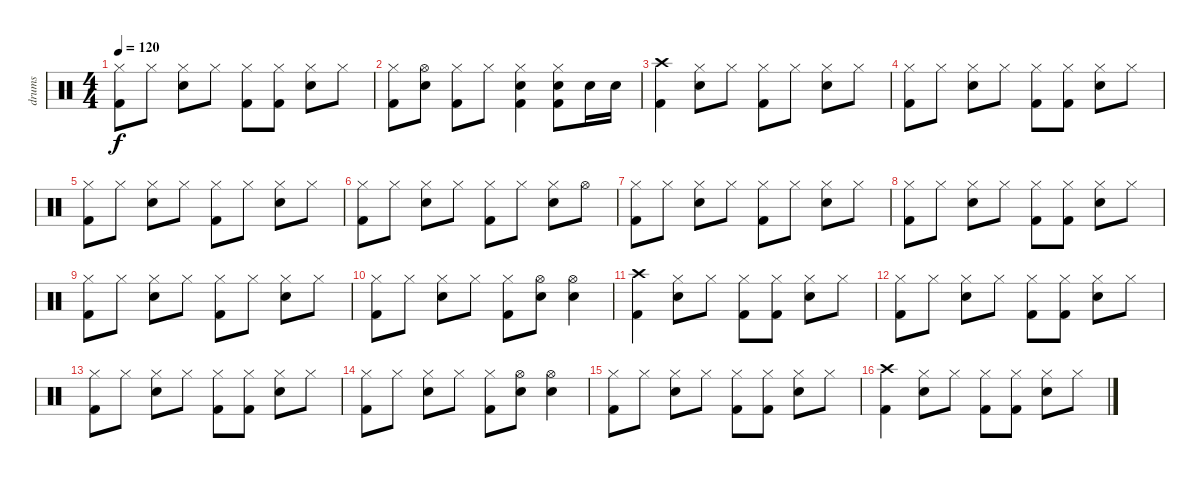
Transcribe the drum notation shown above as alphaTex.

\track ("drums" "drums") {instrument percussion}
\staff {score}
\articulation defaults
\ts (4 4)
\tempo 120
\clef neutral
\ks c
("Hi-Hat (closed)" "Kick (hit) 2").8{dy f} "Hi-Hat (closed)".8 ("Hi-Hat (closed)" "Electric Snare (hit)").8 "Hi-Hat (closed)".8 ("Hi-Hat (closed)" "Kick (hit) 2").8 ("Hi-Hat (closed)" "Kick (hit) 2").8 ("Hi-Hat (closed)" "Electric Snare (hit)").8 "Hi-Hat (closed)".8 |
("Hi-Hat (closed)" "Kick (hit) 2").8 ("Hi-Hat (open)" "Electric Snare (hit)").8 ("Hi-Hat (closed)" "Kick (hit) 2").8 "Hi-Hat (closed)".8 ("Hi-Hat (closed)" "Electric Snare (hit)" "Kick (hit) 2").4 ("Hi-Hat (closed)" "Electric Snare (hit)" "Kick (hit) 2").8 "Electric Snare (hit)".16 "Electric Snare (hit)".16 |
("Crash high (hit)" "Kick (hit) 2").4 ("Hi-Hat (closed)" "Electric Snare (hit)").8 "Hi-Hat (closed)".8 ("Hi-Hat (closed)" "Kick (hit) 2").8 "Hi-Hat (closed)".8 ("Hi-Hat (closed)" "Electric Snare (hit)").8 "Hi-Hat (closed)".8 |
("Hi-Hat (closed)" "Kick (hit) 2").8 "Hi-Hat (closed)".8 ("Hi-Hat (closed)" "Electric Snare (hit)").8 "Hi-Hat (closed)".8 ("Hi-Hat (closed)" "Kick (hit) 2").8 ("Hi-Hat (closed)" "Kick (hit) 2").8 ("Hi-Hat (closed)" "Electric Snare (hit)").8 "Hi-Hat (closed)".8 |
("Hi-Hat (closed)" "Kick (hit) 2").8 "Hi-Hat (closed)".8 ("Hi-Hat (closed)" "Electric Snare (hit)").8 "Hi-Hat (closed)".8 ("Hi-Hat (closed)" "Kick (hit) 2").8 "Hi-Hat (closed)".8 ("Hi-Hat (closed)" "Electric Snare (hit)").8 "Hi-Hat (closed)".8 |
("Hi-Hat (closed)" "Kick (hit) 2").8 "Hi-Hat (closed)".8 ("Hi-Hat (closed)" "Electric Snare (hit)").8 "Hi-Hat (closed)".8 ("Hi-Hat (closed)" "Kick (hit) 2").8 "Hi-Hat (closed)".8 ("Hi-Hat (closed)" "Electric Snare (hit)").8 "Hi-Hat (open)".8 |
("Hi-Hat (closed)" "Kick (hit) 2").8 "Hi-Hat (closed)".8 ("Hi-Hat (closed)" "Electric Snare (hit)").8 "Hi-Hat (closed)".8 ("Hi-Hat (closed)" "Kick (hit) 2").8 "Hi-Hat (closed)".8 ("Hi-Hat (closed)" "Electric Snare (hit)").8 "Hi-Hat (closed)".8 |
("Hi-Hat (closed)" "Kick (hit) 2").8 "Hi-Hat (closed)".8 ("Hi-Hat (closed)" "Electric Snare (hit)").8 "Hi-Hat (closed)".8 ("Hi-Hat (closed)" "Kick (hit) 2").8 ("Hi-Hat (closed)" "Kick (hit) 2").8 ("Hi-Hat (closed)" "Electric Snare (hit)").8 "Hi-Hat (closed)".8 |
("Hi-Hat (closed)" "Kick (hit) 2").8 "Hi-Hat (closed)".8 ("Hi-Hat (closed)" "Electric Snare (hit)").8 "Hi-Hat (closed)".8 ("Hi-Hat (closed)" "Kick (hit) 2").8 "Hi-Hat (closed)".8 ("Hi-Hat (closed)" "Electric Snare (hit)").8 "Hi-Hat (closed)".8 |
("Hi-Hat (closed)" "Kick (hit) 2").8 "Hi-Hat (closed)".8 ("Hi-Hat (closed)" "Electric Snare (hit)").8 "Hi-Hat (closed)".8 ("Hi-Hat (closed)" "Kick (hit) 2").8 ("Hi-Hat (open)" "Electric Snare (hit)").8 ("Hi-Hat (open)" "Electric Snare (hit)").4 |
("Crash high (hit)" "Kick (hit) 2").4 ("Hi-Hat (closed)" "Electric Snare (hit)").8 "Hi-Hat (closed)".8 ("Hi-Hat (closed)" "Kick (hit) 2").8 ("Hi-Hat (closed)" "Kick (hit) 2").8 ("Hi-Hat (closed)" "Electric Snare (hit)").8 "Hi-Hat (closed)".8 |
("Hi-Hat (closed)" "Kick (hit) 2").8 "Hi-Hat (closed)".8 ("Hi-Hat (closed)" "Electric Snare (hit)").8 "Hi-Hat (closed)".8 ("Hi-Hat (closed)" "Kick (hit) 2").8 ("Hi-Hat (closed)" "Kick (hit) 2").8 ("Hi-Hat (closed)" "Electric Snare (hit)").8 "Hi-Hat (closed)".8 |
("Hi-Hat (closed)" "Kick (hit) 2").8 "Hi-Hat (closed)".8 ("Hi-Hat (closed)" "Electric Snare (hit)").8 "Hi-Hat (closed)".8 ("Hi-Hat (closed)" "Kick (hit) 2").8 ("Hi-Hat (closed)" "Kick (hit) 2").8 ("Hi-Hat (closed)" "Electric Snare (hit)").8 "Hi-Hat (closed)".8 |
("Hi-Hat (closed)" "Kick (hit) 2").8 "Hi-Hat (closed)".8 ("Hi-Hat (closed)" "Electric Snare (hit)").8 "Hi-Hat (closed)".8 ("Hi-Hat (closed)" "Kick (hit) 2").8 ("Hi-Hat (open)" "Electric Snare (hit)").8 ("Hi-Hat (open)" "Electric Snare (hit)").4 |
("Hi-Hat (closed)" "Kick (hit) 2").8 "Hi-Hat (closed)".8 ("Hi-Hat (closed)" "Electric Snare (hit)").8 "Hi-Hat (closed)".8 ("Hi-Hat (closed)" "Kick (hit) 2").8 ("Hi-Hat (closed)" "Kick (hit) 2").8 ("Hi-Hat (closed)" "Electric Snare (hit)").8 "Hi-Hat (closed)".8 |
("Crash high (hit)" "Kick (hit) 2").4 ("Hi-Hat (closed)" "Electric Snare (hit)").8 "Hi-Hat (closed)".8 ("Hi-Hat (closed)" "Kick (hit) 2").8 ("Hi-Hat (closed)" "Kick (hit) 2").8 ("Hi-Hat (closed)" "Electric Snare (hit)").8 "Hi-Hat (closed)".8
